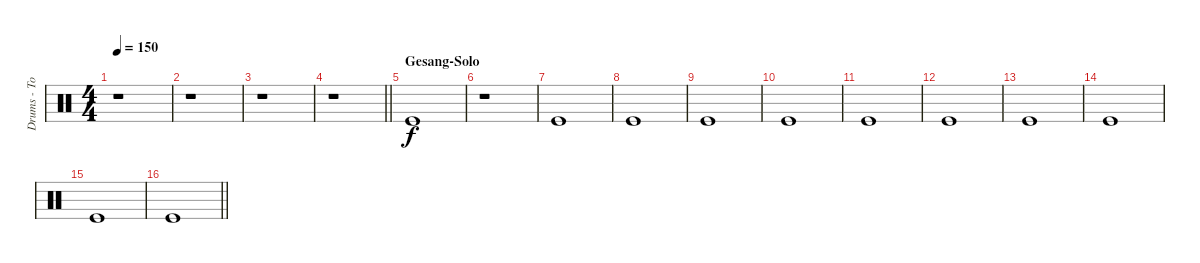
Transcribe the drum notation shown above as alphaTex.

\track ("Drums - Tobi Häuser" "Drums - To") {instrument percussion}
\staff {score}
\articulation defaults
\ts (4 4)
\tempo 150
\clef neutral
\ks c
r.1{dy f} |
r.1 |
r.1 |
\barLineRight lightlight
r.1 |
\section ("" "Gesang-Solo")
"Kick (hit)".1 |
r.1 |
"Kick (hit)".1 |
"Kick (hit)".1 |
"Kick (hit)".1 |
"Kick (hit)".1 |
"Kick (hit)".1 |
"Kick (hit)".1 |
"Kick (hit)".1 |
"Kick (hit)".1 |
"Kick (hit)".1 |
\barLineRight lightlight "Kick (hit)".1
